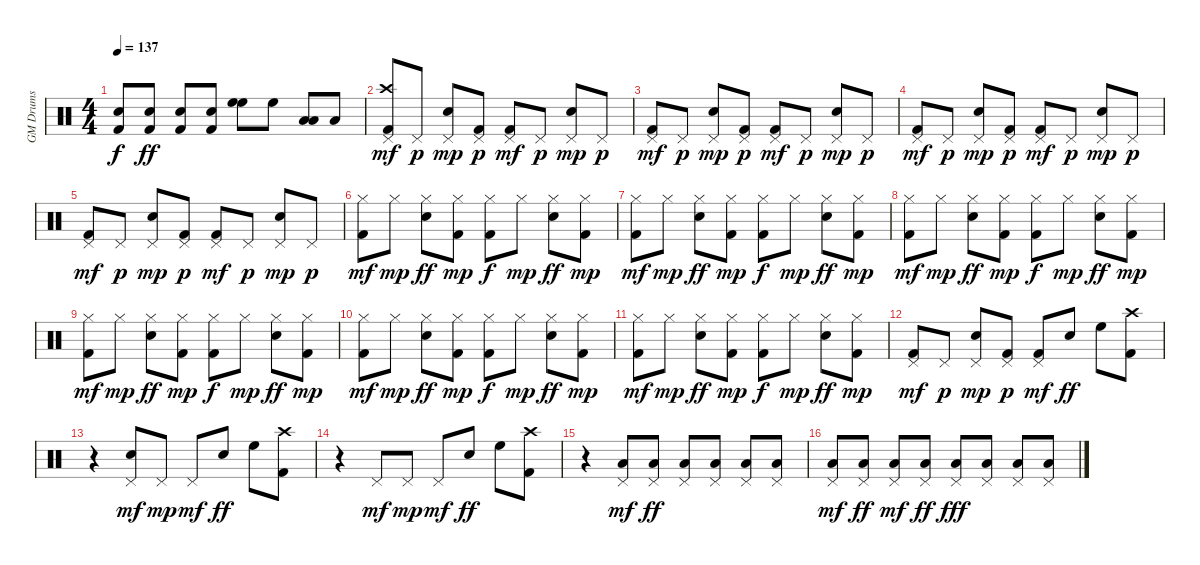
\track ("GM Drums            " "GM Drums  ") {instrument percussion}
\staff {score}
\articulation defaults
\ts (4 4)
\tempo 137
\clef neutral
\ks c
("Snare (hit) 2" "Kick (hit) 2").8{dy f} ("Kick (hit) 2" "Snare (hit) 2").8{dy ff} ("Kick (hit) 2" "Snare (hit) 2").8 ("Snare (hit) 2" "Kick (hit) 2").8 ("High Floor Tom (hit)" "High Floor Tom (hit)").8 "High Floor Tom (hit)".8 ("Low Floor Tom (hit)" "Low Floor Tom (hit)").8 "Low Floor Tom (hit)".8 |
("Crash high (hit)" "Kick (hit) 2" "Pedal Hi-Hat (hit)").8{dy mf} "Pedal Hi-Hat (hit)".8{dy p} ("Snare (hit) 2" "Pedal Hi-Hat (hit)").8{dy mp} ("Pedal Hi-Hat (hit)" "Kick (hit) 2").8{dy p} ("Kick (hit) 2" "Pedal Hi-Hat (hit)").8{dy mf} "Pedal Hi-Hat (hit)".8{dy p} ("Snare (hit) 2" "Pedal Hi-Hat (hit)").8{dy mp} "Pedal Hi-Hat (hit)".8{dy p} |
("Kick (hit) 2" "Pedal Hi-Hat (hit)").8{dy mf} "Pedal Hi-Hat (hit)".8{dy p} ("Snare (hit) 2" "Pedal Hi-Hat (hit)").8{dy mp} ("Pedal Hi-Hat (hit)" "Kick (hit) 2").8{dy p} ("Kick (hit) 2" "Pedal Hi-Hat (hit)").8{dy mf} "Pedal Hi-Hat (hit)".8{dy p} ("Snare (hit) 2" "Pedal Hi-Hat (hit)").8{dy mp} "Pedal Hi-Hat (hit)".8{dy p} |
("Kick (hit) 2" "Pedal Hi-Hat (hit)").8{dy mf} "Pedal Hi-Hat (hit)".8{dy p} ("Snare (hit) 2" "Pedal Hi-Hat (hit)").8{dy mp} ("Pedal Hi-Hat (hit)" "Kick (hit) 2").8{dy p} ("Kick (hit) 2" "Pedal Hi-Hat (hit)").8{dy mf} "Pedal Hi-Hat (hit)".8{dy p} ("Snare (hit) 2" "Pedal Hi-Hat (hit)").8{dy mp} "Pedal Hi-Hat (hit)".8{dy p} |
("Kick (hit) 2" "Pedal Hi-Hat (hit)").8{dy mf} "Pedal Hi-Hat (hit)".8{dy p} ("Snare (hit) 2" "Pedal Hi-Hat (hit)").8{dy mp} ("Pedal Hi-Hat (hit)" "Kick (hit) 2").8{dy p} ("Kick (hit) 2" "Pedal Hi-Hat (hit)").8{dy mf} "Pedal Hi-Hat (hit)".8{dy p} ("Snare (hit) 2" "Pedal Hi-Hat (hit)").8{dy mp} "Pedal Hi-Hat (hit)".8{dy p} |
("Kick (hit) 2" "Hi-Hat (closed)").8{dy mf} "Hi-Hat (closed)".8{dy mp} ("Snare (hit) 2" "Hi-Hat (closed)").8{dy ff} ("Hi-Hat (closed)" "Kick (hit) 2").8{dy mp} ("Kick (hit) 2" "Hi-Hat (closed)").8{dy f} "Hi-Hat (closed)".8{dy mp} ("Snare (hit) 2" "Hi-Hat (closed)").8{dy ff} ("Kick (hit) 2" "Hi-Hat (closed)").8{dy mp} |
("Kick (hit) 2" "Hi-Hat (closed)").8{dy mf} "Hi-Hat (closed)".8{dy mp} ("Snare (hit) 2" "Hi-Hat (closed)").8{dy ff} ("Hi-Hat (closed)" "Kick (hit) 2").8{dy mp} ("Kick (hit) 2" "Hi-Hat (closed)").8{dy f} "Hi-Hat (closed)".8{dy mp} ("Snare (hit) 2" "Hi-Hat (closed)").8{dy ff} ("Kick (hit) 2" "Hi-Hat (closed)").8{dy mp} |
("Kick (hit) 2" "Hi-Hat (closed)").8{dy mf} "Hi-Hat (closed)".8{dy mp} ("Snare (hit) 2" "Hi-Hat (closed)").8{dy ff} ("Hi-Hat (closed)" "Kick (hit) 2").8{dy mp} ("Kick (hit) 2" "Hi-Hat (closed)").8{dy f} "Hi-Hat (closed)".8{dy mp} ("Snare (hit) 2" "Hi-Hat (closed)").8{dy ff} ("Kick (hit) 2" "Hi-Hat (closed)").8{dy mp} |
("Kick (hit) 2" "Hi-Hat (closed)").8{dy mf} "Hi-Hat (closed)".8{dy mp} ("Snare (hit) 2" "Hi-Hat (closed)").8{dy ff} ("Hi-Hat (closed)" "Kick (hit) 2").8{dy mp} ("Kick (hit) 2" "Hi-Hat (closed)").8{dy f} "Hi-Hat (closed)".8{dy mp} ("Snare (hit) 2" "Hi-Hat (closed)").8{dy ff} ("Kick (hit) 2" "Hi-Hat (closed)").8{dy mp} |
("Kick (hit) 2" "Hi-Hat (closed)").8{dy mf} "Hi-Hat (closed)".8{dy mp} ("Snare (hit) 2" "Hi-Hat (closed)").8{dy ff} ("Hi-Hat (closed)" "Kick (hit) 2").8{dy mp} ("Kick (hit) 2" "Hi-Hat (closed)").8{dy f} "Hi-Hat (closed)".8{dy mp} ("Snare (hit) 2" "Hi-Hat (closed)").8{dy ff} ("Kick (hit) 2" "Hi-Hat (closed)").8{dy mp} |
("Kick (hit) 2" "Hi-Hat (closed)").8{dy mf} "Hi-Hat (closed)".8{dy mp} ("Snare (hit) 2" "Hi-Hat (closed)").8{dy ff} ("Hi-Hat (closed)" "Kick (hit) 2").8{dy mp} ("Kick (hit) 2" "Hi-Hat (closed)").8{dy f} "Hi-Hat (closed)".8{dy mp} ("Snare (hit) 2" "Hi-Hat (closed)").8{dy ff} ("Kick (hit) 2" "Hi-Hat (closed)").8{dy mp} |
("Pedal Hi-Hat (hit)" "Kick (hit) 2").8{dy mf} "Pedal Hi-Hat (hit)".8{dy p} ("Snare (hit) 2" "Pedal Hi-Hat (hit)").8{dy mp} ("Pedal Hi-Hat (hit)" "Kick (hit) 2").8{dy p} ("Kick (hit) 2" "Pedal Hi-Hat (hit)").8{dy mf} "Snare (hit) 2".8{dy ff} "High Floor Tom (hit)".8 ("Crash high (hit)" "Kick (hit) 2").8 |
r.4 ("Snare (hit) 2" "Pedal Hi-Hat (hit)").8{dy mf} "Pedal Hi-Hat (hit)".8{dy mp} "Pedal Hi-Hat (hit)".8{dy mf} "Snare (hit) 2".8{dy ff} "High Floor Tom (hit)".8 ("Crash high (hit)" "Kick (hit) 2").8 |
r.4 "Pedal Hi-Hat (hit)".8{dy mf} "Pedal Hi-Hat (hit)".8{dy mp} "Pedal Hi-Hat (hit)".8{dy mf} "Snare (hit) 2".8{dy ff} "High Floor Tom (hit)".8 ("Crash high (hit)" "Kick (hit) 2").8 |
r.4 ("Low Floor Tom (hit)" "Pedal Hi-Hat (hit)").8{dy mf} ("Pedal Hi-Hat (hit)" "Low Floor Tom (hit)").8{dy ff} ("Pedal Hi-Hat (hit)" "Low Floor Tom (hit)").8 ("Pedal Hi-Hat (hit)" "Low Floor Tom (hit)").8 ("Pedal Hi-Hat (hit)" "Low Floor Tom (hit)").8 ("Pedal Hi-Hat (hit)" "Low Floor Tom (hit)").8 |
("Low Floor Tom (hit)" "Pedal Hi-Hat (hit)").8{dy mf} ("Pedal Hi-Hat (hit)" "Low Floor Tom (hit)").8{dy ff} ("Low Floor Tom (hit)" "Pedal Hi-Hat (hit)").8{dy mf} ("Pedal Hi-Hat (hit)" "Low Floor Tom (hit)").8{dy ff} ("Pedal Hi-Hat (hit)" "Low Floor Tom (hit)").8{dy fff} ("Pedal Hi-Hat (hit)" "Low Floor Tom (hit)").8 ("Pedal Hi-Hat (hit)" "Low Floor Tom (hit)").8 ("Pedal Hi-Hat (hit)" "Low Floor Tom (hit)").8
